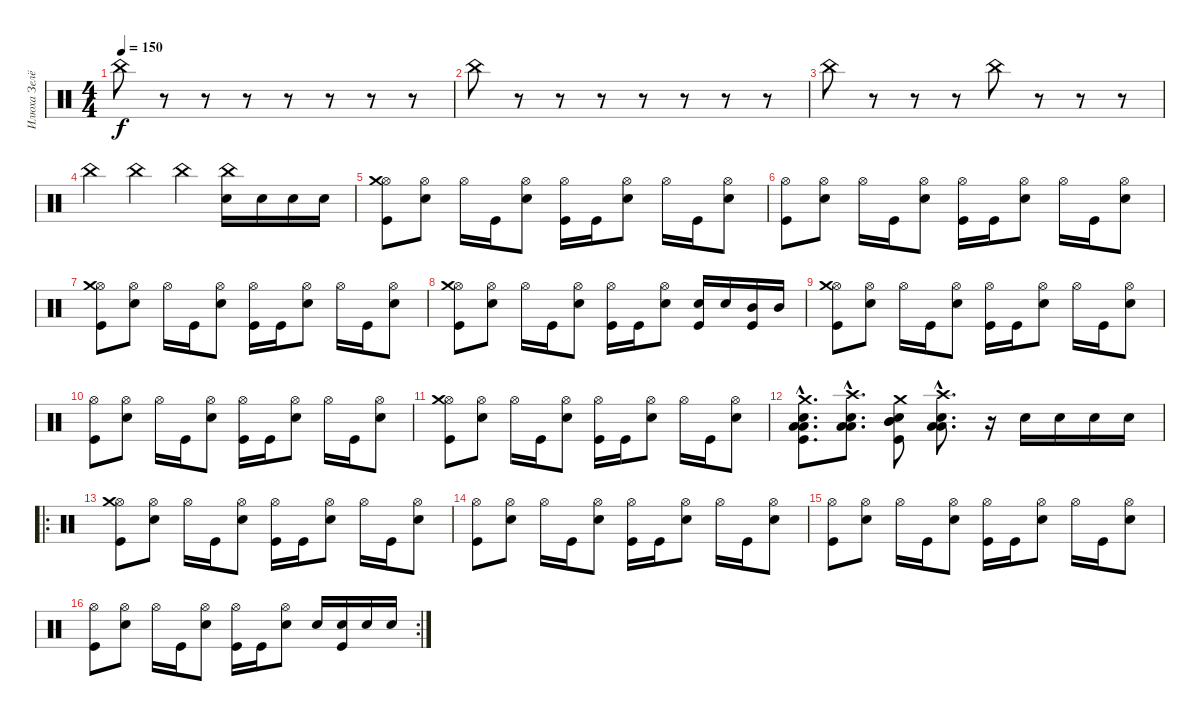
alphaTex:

\track ("Илюха Зелёный (БАРАБАНЫ)" "Илюха Зелё") {instrument percussion}
\staff {score}
\articulation defaults
\ts (4 4)
\tempo 150
\clef neutral
\ks c "China (hit)".8{dy f}
r.8 r.8 r.8 r.8 r.8 r.8 r.8 |
"China (hit)".8 r.8 r.8 r.8 r.8 r.8 r.8 r.8 |
"China (hit)".8 r.8 r.8 r.8 "China (hit)".8 r.8 r.8 r.8 |
"China (hit)".4 "China (hit)".4 "China (hit)".4 ("China (hit)" "Electric Snare (hit)").16 "Electric Snare (hit)".16 "Electric Snare (hit)".16 "Electric Snare (hit)".16 |
("Hi-Hat (open)" "Crash medium (hit)" "Kick (hit)").8 ("Hi-Hat (open)" "Electric Snare (hit)").8 "Hi-Hat (open)".16 "Kick (hit)".16 ("Hi-Hat (open)" "Electric Snare (hit)").8 ("Hi-Hat (open)" "Kick (hit)").16 "Kick (hit)".16 ("Hi-Hat (open)" "Electric Snare (hit)").8 "Hi-Hat (open)".16 "Kick (hit)".16 ("Hi-Hat (open)" "Electric Snare (hit)").8 |
("Hi-Hat (open)" "Kick (hit)").8 ("Hi-Hat (open)" "Electric Snare (hit)").8 "Hi-Hat (open)".16 "Kick (hit)".16 ("Hi-Hat (open)" "Electric Snare (hit)").8 ("Hi-Hat (open)" "Kick (hit)").16 "Kick (hit)".16 ("Hi-Hat (open)" "Electric Snare (hit)").8 "Hi-Hat (open)".16 "Kick (hit)".16 ("Hi-Hat (open)" "Electric Snare (hit)").8 |
("Hi-Hat (open)" "Crash medium (hit)" "Kick (hit)").8 ("Hi-Hat (open)" "Electric Snare (hit)").8 "Hi-Hat (open)".16 "Kick (hit)".16 ("Hi-Hat (open)" "Electric Snare (hit)").8 ("Hi-Hat (open)" "Kick (hit)").16 "Kick (hit)".16 ("Hi-Hat (open)" "Electric Snare (hit)").8 "Hi-Hat (open)".16 "Kick (hit)".16 ("Hi-Hat (open)" "Electric Snare (hit)").8 |
("Hi-Hat (open)" "Crash medium (hit)" "Kick (hit)").8 ("Hi-Hat (open)" "Electric Snare (hit)").8 "Hi-Hat (open)".16 "Kick (hit)".16 ("Hi-Hat (open)" "Electric Snare (hit)").8 ("Hi-Hat (open)" "Kick (hit)").16 "Kick (hit)".16 ("Hi-Hat (open)" "Electric Snare (hit)").8 ("Electric Snare (hit)" "Kick (hit)").16 "Electric Snare (hit)".16 ("Mid Tom (hit)" "Kick (hit)").16 "Mid Tom (hit)".16 |
("Hi-Hat (open)" "Crash medium (hit)" "Kick (hit)").8 ("Hi-Hat (open)" "Electric Snare (hit)").8 "Hi-Hat (open)".16 "Kick (hit)".16 ("Hi-Hat (open)" "Electric Snare (hit)").8 ("Hi-Hat (open)" "Kick (hit)").16 "Kick (hit)".16 ("Hi-Hat (open)" "Electric Snare (hit)").8 "Hi-Hat (open)".16 "Kick (hit)".16 ("Hi-Hat (open)" "Electric Snare (hit)").8 |
("Hi-Hat (open)" "Kick (hit)").8 ("Hi-Hat (open)" "Electric Snare (hit)").8 "Hi-Hat (open)".16 "Kick (hit)".16 ("Hi-Hat (open)" "Electric Snare (hit)").8 ("Hi-Hat (open)" "Kick (hit)").16 "Kick (hit)".16 ("Hi-Hat (open)" "Electric Snare (hit)").8 "Hi-Hat (open)".16 "Kick (hit)".16 ("Hi-Hat (open)" "Electric Snare (hit)").8 |
("Hi-Hat (open)" "Crash medium (hit)" "Kick (hit)").8 ("Hi-Hat (open)" "Electric Snare (hit)").8 "Hi-Hat (open)".16 "Kick (hit)".16 ("Hi-Hat (open)" "Electric Snare (hit)").8 ("Hi-Hat (open)" "Kick (hit)").16 "Kick (hit)".16 ("Hi-Hat (open)" "Electric Snare (hit)").8 "Hi-Hat (open)".16 "Kick (hit)".16 ("Hi-Hat (open)" "Electric Snare (hit)").8 |
("Crash medium (hit)"{hac} "Low Floor Tom (hit)"{hac} "Low Floor Tom (hit)"{hac} "Electric Snare (hit)"{hac} "Kick (hit)"{hac}).8{d} ("Crash high (hit)"{hac} "Low Floor Tom (hit)"{hac} "Low Floor Tom (hit)"{hac} "Electric Snare (hit)"{hac}).8{d} ("Crash medium (hit)" "Mid Tom (hit)" "Mid Tom (hit)" "Electric Snare (hit)" "Kick (hit)").8 ("Crash high (hit)"{hac} "Low Floor Tom (hit)"{hac} "Low Floor Tom (hit)"{hac} "Electric Snare (hit)"{hac}).8{d} r.16 "Electric Snare (hit)".16 "Electric Snare (hit)".16 "Electric Snare (hit)".16 "Electric Snare (hit)".16 |
\ro
("Hi-Hat (open)" "Crash medium (hit)" "Kick (hit)").8 ("Hi-Hat (open)" "Electric Snare (hit)").8 "Hi-Hat (open)".16 "Kick (hit)".16 ("Hi-Hat (open)" "Electric Snare (hit)").8 ("Hi-Hat (open)" "Kick (hit)").16 "Kick (hit)".16 ("Hi-Hat (open)" "Electric Snare (hit)").8 "Hi-Hat (open)".16 "Kick (hit)".16 ("Hi-Hat (open)" "Electric Snare (hit)").8 |
("Hi-Hat (open)" "Kick (hit)").8 ("Hi-Hat (open)" "Electric Snare (hit)").8 "Hi-Hat (open)".16 "Kick (hit)".16 ("Hi-Hat (open)" "Electric Snare (hit)").8 ("Hi-Hat (open)" "Kick (hit)").16 "Kick (hit)".16 ("Hi-Hat (open)" "Electric Snare (hit)").8 "Hi-Hat (open)".16 "Kick (hit)".16 ("Hi-Hat (open)" "Electric Snare (hit)").8 |
("Hi-Hat (open)" "Kick (hit)").8 ("Hi-Hat (open)" "Electric Snare (hit)").8 "Hi-Hat (open)".16 "Kick (hit)".16 ("Hi-Hat (open)" "Electric Snare (hit)").8 ("Hi-Hat (open)" "Kick (hit)").16 "Kick (hit)".16 ("Hi-Hat (open)" "Electric Snare (hit)").8 "Hi-Hat (open)".16 "Kick (hit)".16 ("Hi-Hat (open)" "Electric Snare (hit)").8 |
\rc 2
("Hi-Hat (open)" "Kick (hit)").8 ("Hi-Hat (open)" "Electric Snare (hit)").8 "Hi-Hat (open)".16 "Kick (hit)".16 ("Hi-Hat (open)" "Electric Snare (hit)").8 ("Hi-Hat (open)" "Kick (hit)").16 "Kick (hit)".16 ("Hi-Hat (open)" "Electric Snare (hit)").8 "Electric Snare (hit)".16 ("Electric Snare (hit)" "Kick (hit)").16 "Electric Snare (hit)".16 "Electric Snare (hit)".16
